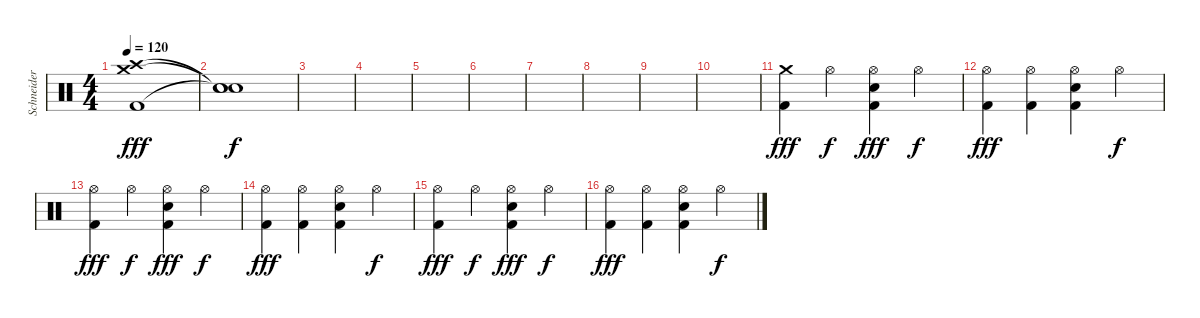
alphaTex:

\track ("Schneider" "Schneider") {instrument percussion}
\staff {score}
\articulation defaults
\ts (4 4)
\tempo 120
\clef neutral
\ks c
("Crash medium (hit)" "Kick (hit) 2" "Crash high (hit)").1{dy fff} |
("Snare (hit)"{t} "Snare (hit)"{t} "Snare (hit)"{t}).1{dy f} |
|
|
|
|
|
|
|
|
("Crash medium (hit)" "Kick (hit) 2").4{dy fff} "Hi-Hat (open)".4{dy f} ("Hi-Hat (open)" "Kick (hit) 2" "Snare (hit) 2").4{dy fff} "Hi-Hat (open)".4{dy f} |
("Hi-Hat (open)" "Kick (hit) 2").4{dy fff} ("Hi-Hat (open)" "Kick (hit) 2").4 ("Hi-Hat (open)" "Kick (hit) 2" "Snare (hit) 2").4 "Hi-Hat (open)".4{dy f} |
("Hi-Hat (open)" "Kick (hit) 2").4{dy fff} "Hi-Hat (open)".4{dy f} ("Hi-Hat (open)" "Kick (hit) 2" "Snare (hit) 2").4{dy fff} "Hi-Hat (open)".4{dy f} |
("Hi-Hat (open)" "Kick (hit) 2").4{dy fff} ("Hi-Hat (open)" "Kick (hit) 2").4 ("Hi-Hat (open)" "Kick (hit) 2" "Snare (hit) 2").4 "Hi-Hat (open)".4{dy f} |
("Hi-Hat (open)" "Kick (hit) 2").4{dy fff} "Hi-Hat (open)".4{dy f} ("Hi-Hat (open)" "Kick (hit) 2" "Snare (hit) 2").4{dy fff} "Hi-Hat (open)".4{dy f} |
("Hi-Hat (open)" "Kick (hit) 2").4{dy fff} ("Hi-Hat (open)" "Kick (hit) 2").4 ("Hi-Hat (open)" "Kick (hit) 2" "Snare (hit) 2").4 "Hi-Hat (open)".4{dy f}
